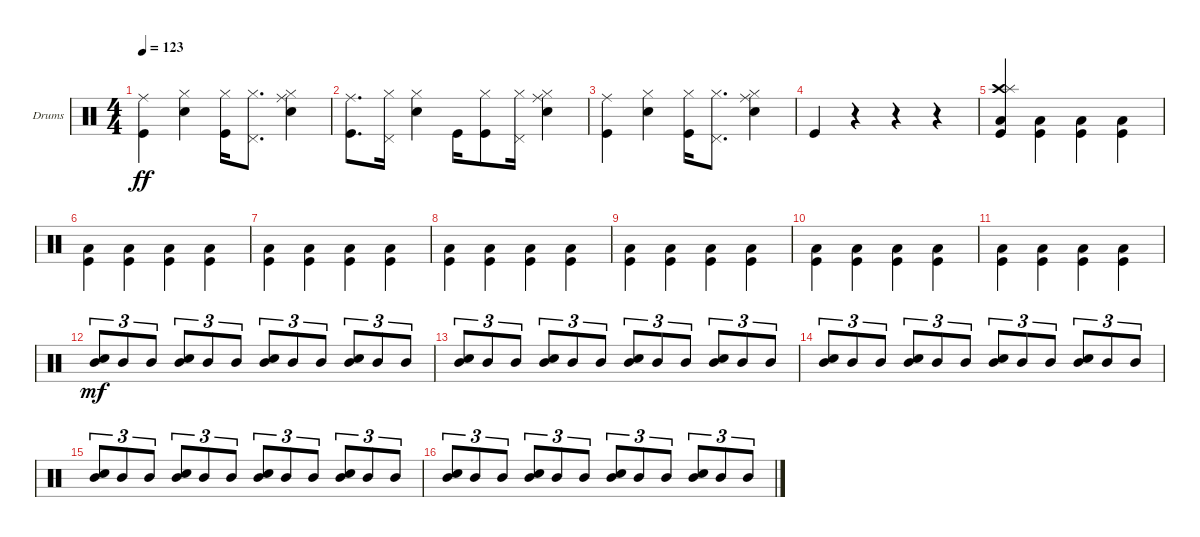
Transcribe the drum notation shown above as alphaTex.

\defaultSystemsLayout 4
\bracketExtendMode groupsimilarinstruments
\firstSystemTrackNameOrientation horizontal
\otherSystemsTrackNameOrientation horizontal
\track ("Drumkit" "Drums") {instrument percussion}
\staff {score}
\articulation defaults
\ts (4 4)
\tempo 123
\clef neutral
\scale
0.333333
\ks c
("Ride (middle)" "Kick (hit)").4{dy ff} ("Hi-Hat (closed)" "Snare (hit) 2").4 ("Kick (hit)" "Hi-Hat (closed)").16 ("Hi-Hat (closed)" "Pedal Hi-Hat (hit)").8{d} ("Hi-Hat (closed)" "Snare (hit) 2" "Ride (middle)").4 |
\scale
0.333333 ("Ride (middle)" "Kick (hit)").8{d} ("Hi-Hat (closed)" "Pedal Hi-Hat (hit)").16 ("Hi-Hat (closed)" "Snare (hit) 2").4 "Kick (hit)".16 ("Kick (hit)" "Hi-Hat (closed)").8 ("Hi-Hat (closed)" "Pedal Hi-Hat (hit)").16 ("Hi-Hat (closed)" "Snare (hit) 2" "Ride (middle)").4 |
\scale
0.333333 ("Ride (middle)" "Kick (hit)").4 ("Hi-Hat (closed)" "Snare (hit) 2").4 ("Kick (hit)" "Hi-Hat (closed)").16 ("Hi-Hat (closed)" "Pedal Hi-Hat (hit)").8{d} ("Hi-Hat (closed)" "Snare (hit) 2" "Ride (middle)").4 |
\scale
0.333333 "Kick (hit)".4 r.4 r.4 r.4 |
\scale
0.333333 ("Kick (hit)" "Low Tom (hit)" "Crash high (hit)" "Splash (hit)").4{beam invert} ("Kick (hit)" "Low Tom (hit)").4{beam invert} ("Kick (hit)" "Low Tom (hit)").4{beam invert} ("Kick (hit)" "Low Tom (hit)").4{beam invert} |
\scale
0.333333 ("Kick (hit)" "Low Tom (hit)").4{beam invert} ("Kick (hit)" "Low Tom (hit)").4{beam invert} ("Kick (hit)" "Low Tom (hit)").4{beam invert} ("Kick (hit)" "Low Tom (hit)").4{beam invert} |
\scale
0.333333 ("Kick (hit)" "Low Tom (hit)").4{beam invert} ("Kick (hit)" "Low Tom (hit)").4{beam invert} ("Kick (hit)" "Low Tom (hit)").4{beam invert} ("Kick (hit)" "Low Tom (hit)").4{beam invert} |
\scale
0.333333 ("Kick (hit)" "Low Tom (hit)").4{beam invert} ("Kick (hit)" "Low Tom (hit)").4{beam invert} ("Kick (hit)" "Low Tom (hit)").4{beam invert} ("Kick (hit)" "Low Tom (hit)").4{beam invert} |
\scale
0.333333 ("Kick (hit)" "Low Tom (hit)").4{beam invert} ("Kick (hit)" "Low Tom (hit)").4{beam invert} ("Kick (hit)" "Low Tom (hit)").4{beam invert} ("Kick (hit)" "Low Tom (hit)").4{beam invert} |
\scale
0.333333 ("Kick (hit)" "Low Tom (hit)").4{beam invert} ("Kick (hit)" "Low Tom (hit)").4{beam invert} ("Kick (hit)" "Low Tom (hit)").4{beam invert} ("Kick (hit)" "Low Tom (hit)").4{beam invert} |
\scale
0.333333 ("Kick (hit)" "Low Tom (hit)").4{beam invert} ("Kick (hit)" "Low Tom (hit)").4{beam invert} ("Kick (hit)" "Low Tom (hit)").4{beam invert} ("Kick (hit)" "Low Tom (hit)").4{beam invert} |
\scale
0.333333 ("Mid Tom (hit)" "Snare (hit) 2").8{tu (3 2) dy mf beam invert} "Mid Tom (hit)".8{tu (3 2) beam invert} "Mid Tom (hit)".8{tu (3 2) beam invert} ("Mid Tom (hit)" "Snare (hit) 2").8{tu (3 2) beam invert} "Mid Tom (hit)".8{tu (3 2) beam invert} "Mid Tom (hit)".8{tu (3 2) beam invert} ("Mid Tom (hit)" "Snare (hit) 2").8{tu (3 2) beam invert} "Mid Tom (hit)".8{tu (3 2) beam invert} "Mid Tom (hit)".8{tu (3 2) beam invert} ("Mid Tom (hit)" "Snare (hit) 2").8{tu (3 2) beam invert} "Mid Tom (hit)".8{tu (3 2) beam invert} "Mid Tom (hit)".8{tu (3 2) beam invert} |
\scale
0.333333 ("Mid Tom (hit)" "Snare (hit) 2").8{tu (3 2) beam invert} "Mid Tom (hit)".8{tu (3 2) beam invert} "Mid Tom (hit)".8{tu (3 2) beam invert} ("Mid Tom (hit)" "Snare (hit) 2").8{tu (3 2) beam invert} "Mid Tom (hit)".8{tu (3 2) beam invert} "Mid Tom (hit)".8{tu (3 2) beam invert} ("Mid Tom (hit)" "Snare (hit) 2").8{tu (3 2) beam invert} "Mid Tom (hit)".8{tu (3 2) beam invert} "Mid Tom (hit)".8{tu (3 2) beam invert} ("Mid Tom (hit)" "Snare (hit) 2").8{tu (3 2) beam invert} "Mid Tom (hit)".8{tu (3 2) beam invert} "Mid Tom (hit)".8{tu (3 2) beam invert} |
\scale
0.333333 ("Mid Tom (hit)" "Snare (hit) 2").8{tu (3 2) beam invert} "Mid Tom (hit)".8{tu (3 2) beam invert} "Mid Tom (hit)".8{tu (3 2) beam invert} ("Mid Tom (hit)" "Snare (hit) 2").8{tu (3 2) beam invert} "Mid Tom (hit)".8{tu (3 2) beam invert} "Mid Tom (hit)".8{tu (3 2) beam invert} ("Mid Tom (hit)" "Snare (hit) 2").8{tu (3 2) beam invert} "Mid Tom (hit)".8{tu (3 2) beam invert} "Mid Tom (hit)".8{tu (3 2) beam invert} ("Mid Tom (hit)" "Snare (hit) 2").8{tu (3 2) beam invert} "Mid Tom (hit)".8{tu (3 2) beam invert} "Mid Tom (hit)".8{tu (3 2) beam invert} |
\scale
0.333333 ("Mid Tom (hit)" "Snare (hit) 2").8{tu (3 2) beam invert} "Mid Tom (hit)".8{tu (3 2) beam invert} "Mid Tom (hit)".8{tu (3 2) beam invert} ("Mid Tom (hit)" "Snare (hit) 2").8{tu (3 2) beam invert} "Mid Tom (hit)".8{tu (3 2) beam invert} "Mid Tom (hit)".8{tu (3 2) beam invert} ("Mid Tom (hit)" "Snare (hit) 2").8{tu (3 2) beam invert} "Mid Tom (hit)".8{tu (3 2) beam invert} "Mid Tom (hit)".8{tu (3 2) beam invert} ("Mid Tom (hit)" "Snare (hit) 2").8{tu (3 2) beam invert} "Mid Tom (hit)".8{tu (3 2) beam invert} "Mid Tom (hit)".8{tu (3 2) beam invert} |
\scale
0.333333 ("Mid Tom (hit)" "Snare (hit) 2").8{tu (3 2) beam invert} "Mid Tom (hit)".8{tu (3 2) beam invert} "Mid Tom (hit)".8{tu (3 2) beam invert} ("Mid Tom (hit)" "Snare (hit) 2").8{tu (3 2) beam invert} "Mid Tom (hit)".8{tu (3 2) beam invert} "Mid Tom (hit)".8{tu (3 2) beam invert} ("Mid Tom (hit)" "Snare (hit) 2").8{tu (3 2) beam invert} "Mid Tom (hit)".8{tu (3 2) beam invert} "Mid Tom (hit)".8{tu (3 2) beam invert} ("Mid Tom (hit)" "Snare (hit) 2").8{tu (3 2) beam invert} "Mid Tom (hit)".8{tu (3 2) beam invert} "Mid Tom (hit)".8{tu (3 2) beam invert}
